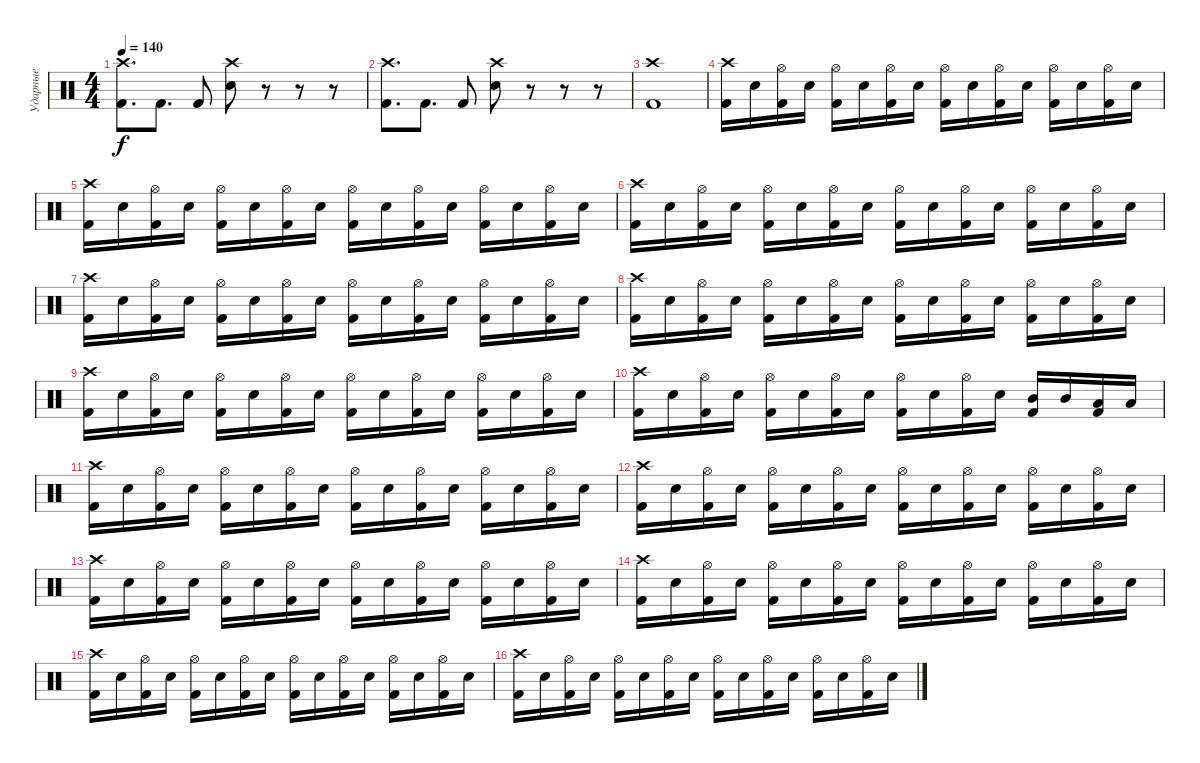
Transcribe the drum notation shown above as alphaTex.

\track ("Ударные" "Ударные") {mute instrument percussion}
\staff {score}
\articulation defaults
\ts (4 4)
\tempo 140
\clef neutral
\ks c
("Crash high (hit)" "Kick (hit) 2").8{d dy f} "Kick (hit) 2".8{d} "Kick (hit) 2".8 ("Crash high (hit)" "Electric Snare (hit)").8 r.8 r.8 r.8 |
("Crash high (hit)" "Kick (hit) 2").8{d} "Kick (hit) 2".8{d} "Kick (hit) 2".8 ("Crash high (hit)" "Electric Snare (hit)").8 r.8 r.8 r.8 |
("Crash high (hit)" "Kick (hit) 2").1 |
("Crash high (hit)" "Kick (hit) 2").16 "Electric Snare (hit)".16 ("Hi-Hat (open)" "Kick (hit) 2").16 "Electric Snare (hit)".16 ("Hi-Hat (open)" "Kick (hit) 2").16 "Electric Snare (hit)".16 ("Hi-Hat (open)" "Kick (hit) 2").16 "Electric Snare (hit)".16 ("Hi-Hat (open)" "Kick (hit) 2").16 "Electric Snare (hit)".16 ("Hi-Hat (open)" "Kick (hit) 2").16 "Electric Snare (hit)".16 ("Hi-Hat (open)" "Kick (hit) 2").16 "Electric Snare (hit)".16 ("Hi-Hat (open)" "Kick (hit) 2").16 "Electric Snare (hit)".16 |
("Crash high (hit)" "Kick (hit) 2").16 "Electric Snare (hit)".16 ("Hi-Hat (open)" "Kick (hit) 2").16 "Electric Snare (hit)".16 ("Hi-Hat (open)" "Kick (hit) 2").16 "Electric Snare (hit)".16 ("Hi-Hat (open)" "Kick (hit) 2").16 "Electric Snare (hit)".16 ("Hi-Hat (open)" "Kick (hit) 2").16 "Electric Snare (hit)".16 ("Hi-Hat (open)" "Kick (hit) 2").16 "Electric Snare (hit)".16 ("Hi-Hat (open)" "Kick (hit) 2").16 "Electric Snare (hit)".16 ("Hi-Hat (open)" "Kick (hit) 2").16 "Electric Snare (hit)".16 |
("Crash high (hit)" "Kick (hit) 2").16 "Electric Snare (hit)".16 ("Hi-Hat (open)" "Kick (hit) 2").16 "Electric Snare (hit)".16 ("Hi-Hat (open)" "Kick (hit) 2").16 "Electric Snare (hit)".16 ("Hi-Hat (open)" "Kick (hit) 2").16 "Electric Snare (hit)".16 ("Hi-Hat (open)" "Kick (hit) 2").16 "Electric Snare (hit)".16 ("Hi-Hat (open)" "Kick (hit) 2").16 "Electric Snare (hit)".16 ("Hi-Hat (open)" "Kick (hit) 2").16 "Electric Snare (hit)".16 ("Hi-Hat (open)" "Kick (hit) 2").16 "Electric Snare (hit)".16 |
("Crash high (hit)" "Kick (hit) 2").16 "Electric Snare (hit)".16 ("Hi-Hat (open)" "Kick (hit) 2").16 "Electric Snare (hit)".16 ("Hi-Hat (open)" "Kick (hit) 2").16 "Electric Snare (hit)".16 ("Hi-Hat (open)" "Kick (hit) 2").16 "Electric Snare (hit)".16 ("Hi-Hat (open)" "Kick (hit) 2").16 "Electric Snare (hit)".16 ("Hi-Hat (open)" "Kick (hit) 2").16 "Electric Snare (hit)".16 ("Hi-Hat (open)" "Kick (hit) 2").16 "Electric Snare (hit)".16 ("Hi-Hat (open)" "Kick (hit) 2").16 "Electric Snare (hit)".16 |
("Crash high (hit)" "Kick (hit) 2").16 "Electric Snare (hit)".16 ("Hi-Hat (open)" "Kick (hit) 2").16 "Electric Snare (hit)".16 ("Hi-Hat (open)" "Kick (hit) 2").16 "Electric Snare (hit)".16 ("Hi-Hat (open)" "Kick (hit) 2").16 "Electric Snare (hit)".16 ("Hi-Hat (open)" "Kick (hit) 2").16 "Electric Snare (hit)".16 ("Hi-Hat (open)" "Kick (hit) 2").16 "Electric Snare (hit)".16 ("Hi-Hat (open)" "Kick (hit) 2").16 "Electric Snare (hit)".16 ("Hi-Hat (open)" "Kick (hit) 2").16 "Electric Snare (hit)".16 |
("Crash high (hit)" "Kick (hit) 2").16 "Electric Snare (hit)".16 ("Hi-Hat (open)" "Kick (hit) 2").16 "Electric Snare (hit)".16 ("Hi-Hat (open)" "Kick (hit) 2").16 "Electric Snare (hit)".16 ("Hi-Hat (open)" "Kick (hit) 2").16 "Electric Snare (hit)".16 ("Hi-Hat (open)" "Kick (hit) 2").16 "Electric Snare (hit)".16 ("Hi-Hat (open)" "Kick (hit) 2").16 "Electric Snare (hit)".16 ("Hi-Hat (open)" "Kick (hit) 2").16 "Electric Snare (hit)".16 ("Hi-Hat (open)" "Kick (hit) 2").16 "Electric Snare (hit)".16 |
("Crash high (hit)" "Kick (hit) 2").16 "Electric Snare (hit)".16 ("Hi-Hat (open)" "Kick (hit) 2").16 "Electric Snare (hit)".16 ("Hi-Hat (open)" "Kick (hit) 2").16 "Electric Snare (hit)".16 ("Hi-Hat (open)" "Kick (hit) 2").16 "Electric Snare (hit)".16 ("Hi-Hat (open)" "Kick (hit) 2").16 "Electric Snare (hit)".16 ("Hi-Hat (open)" "Kick (hit) 2").16 "Electric Snare (hit)".16 ("Mid Tom (hit)" "Kick (hit) 2").16 "Mid Tom (hit)".16 ("Low Tom (hit)" "Kick (hit) 2").16 "Low Tom (hit)".16 |
("Crash high (hit)" "Kick (hit) 2").16 "Electric Snare (hit)".16 ("Hi-Hat (open)" "Kick (hit) 2").16 "Electric Snare (hit)".16 ("Hi-Hat (open)" "Kick (hit) 2").16 "Electric Snare (hit)".16 ("Hi-Hat (open)" "Kick (hit) 2").16 "Electric Snare (hit)".16 ("Hi-Hat (open)" "Kick (hit) 2").16 "Electric Snare (hit)".16 ("Hi-Hat (open)" "Kick (hit) 2").16 "Electric Snare (hit)".16 ("Hi-Hat (open)" "Kick (hit) 2").16 "Electric Snare (hit)".16 ("Hi-Hat (open)" "Kick (hit) 2").16 "Electric Snare (hit)".16 |
("Crash high (hit)" "Kick (hit) 2").16 "Electric Snare (hit)".16 ("Hi-Hat (open)" "Kick (hit) 2").16 "Electric Snare (hit)".16 ("Hi-Hat (open)" "Kick (hit) 2").16 "Electric Snare (hit)".16 ("Hi-Hat (open)" "Kick (hit) 2").16 "Electric Snare (hit)".16 ("Hi-Hat (open)" "Kick (hit) 2").16 "Electric Snare (hit)".16 ("Hi-Hat (open)" "Kick (hit) 2").16 "Electric Snare (hit)".16 ("Hi-Hat (open)" "Kick (hit) 2").16 "Electric Snare (hit)".16 ("Hi-Hat (open)" "Kick (hit) 2").16 "Electric Snare (hit)".16 |
("Crash high (hit)" "Kick (hit) 2").16 "Electric Snare (hit)".16 ("Hi-Hat (open)" "Kick (hit) 2").16 "Electric Snare (hit)".16 ("Hi-Hat (open)" "Kick (hit) 2").16 "Electric Snare (hit)".16 ("Hi-Hat (open)" "Kick (hit) 2").16 "Electric Snare (hit)".16 ("Hi-Hat (open)" "Kick (hit) 2").16 "Electric Snare (hit)".16 ("Hi-Hat (open)" "Kick (hit) 2").16 "Electric Snare (hit)".16 ("Hi-Hat (open)" "Kick (hit) 2").16 "Electric Snare (hit)".16 ("Hi-Hat (open)" "Kick (hit) 2").16 "Electric Snare (hit)".16 |
("Crash high (hit)" "Kick (hit) 2").16 "Electric Snare (hit)".16 ("Hi-Hat (open)" "Kick (hit) 2").16 "Electric Snare (hit)".16 ("Hi-Hat (open)" "Kick (hit) 2").16 "Electric Snare (hit)".16 ("Hi-Hat (open)" "Kick (hit) 2").16 "Electric Snare (hit)".16 ("Hi-Hat (open)" "Kick (hit) 2").16 "Electric Snare (hit)".16 ("Hi-Hat (open)" "Kick (hit) 2").16 "Electric Snare (hit)".16 ("Hi-Hat (open)" "Kick (hit) 2").16 "Electric Snare (hit)".16 ("Hi-Hat (open)" "Kick (hit) 2").16 "Electric Snare (hit)".16 |
("Crash high (hit)" "Kick (hit) 2").16 "Electric Snare (hit)".16 ("Hi-Hat (open)" "Kick (hit) 2").16 "Electric Snare (hit)".16 ("Hi-Hat (open)" "Kick (hit) 2").16 "Electric Snare (hit)".16 ("Hi-Hat (open)" "Kick (hit) 2").16 "Electric Snare (hit)".16 ("Hi-Hat (open)" "Kick (hit) 2").16 "Electric Snare (hit)".16 ("Hi-Hat (open)" "Kick (hit) 2").16 "Electric Snare (hit)".16 ("Hi-Hat (open)" "Kick (hit) 2").16 "Electric Snare (hit)".16 ("Hi-Hat (open)" "Kick (hit) 2").16 "Electric Snare (hit)".16 |
("Crash high (hit)" "Kick (hit) 2").16 "Electric Snare (hit)".16 ("Hi-Hat (open)" "Kick (hit) 2").16 "Electric Snare (hit)".16 ("Hi-Hat (open)" "Kick (hit) 2").16 "Electric Snare (hit)".16 ("Hi-Hat (open)" "Kick (hit) 2").16 "Electric Snare (hit)".16 ("Hi-Hat (open)" "Kick (hit) 2").16 "Electric Snare (hit)".16 ("Hi-Hat (open)" "Kick (hit) 2").16 "Electric Snare (hit)".16 ("Hi-Hat (open)" "Kick (hit) 2").16 "Electric Snare (hit)".16 ("Hi-Hat (open)" "Kick (hit) 2").16 "Electric Snare (hit)".16
